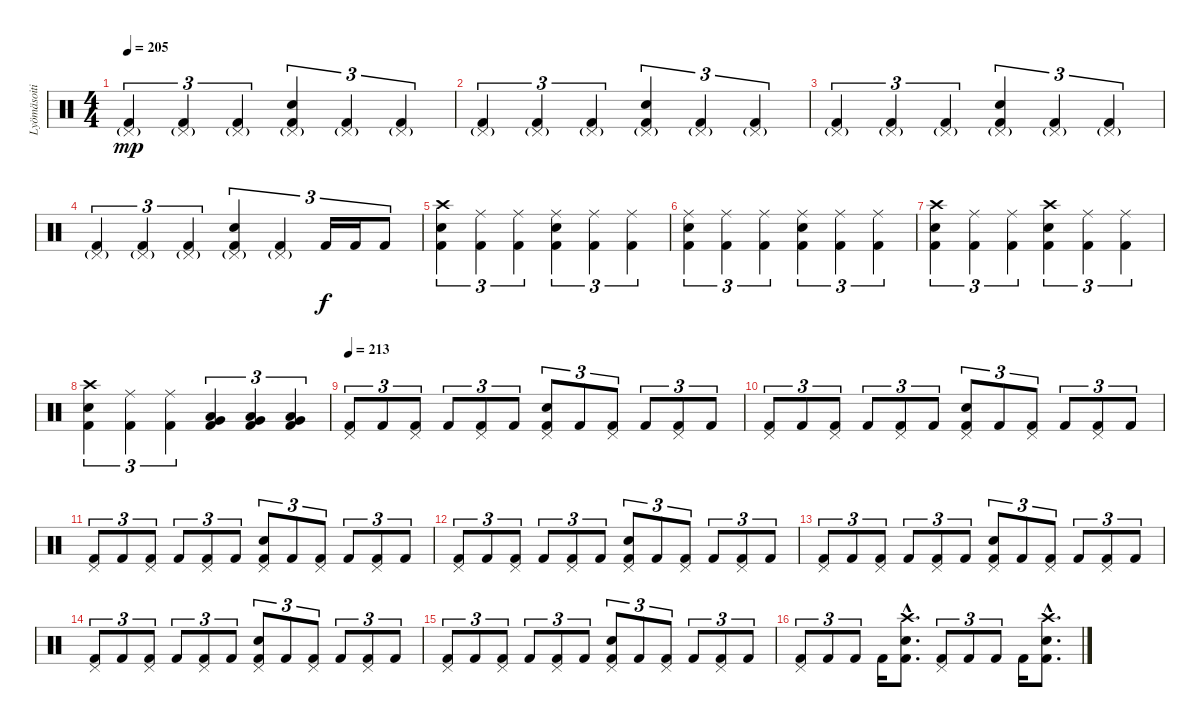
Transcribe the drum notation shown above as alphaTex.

\track ("Lyömäsoitin" "Lyömäsoiti") {instrument percussion}
\staff {score}
\articulation defaults
\ts (4 4)
\tempo 205
\clef neutral
\ks c
("Pedal Hi-Hat (hit)"{g} "Kick (hit) 2").4{tu (3 2) dy mp} ("Pedal Hi-Hat (hit)"{g} "Kick (hit) 2").4{tu (3 2)} ("Pedal Hi-Hat (hit)"{g} "Kick (hit) 2").4{tu (3 2)} ("Pedal Hi-Hat (hit)"{g} "Electric Snare (hit)" "Kick (hit) 2").4{tu (3 2)} ("Pedal Hi-Hat (hit)"{g} "Kick (hit) 2").4{tu (3 2)} ("Pedal Hi-Hat (hit)"{g} "Kick (hit) 2").4{tu (3 2)} |
("Pedal Hi-Hat (hit)"{g} "Kick (hit) 2").4{tu (3 2)} ("Pedal Hi-Hat (hit)"{g} "Kick (hit) 2").4{tu (3 2)} ("Pedal Hi-Hat (hit)"{g} "Kick (hit) 2").4{tu (3 2)} ("Pedal Hi-Hat (hit)"{g} "Electric Snare (hit)" "Kick (hit) 2").4{tu (3 2)} ("Pedal Hi-Hat (hit)"{g} "Kick (hit) 2").4{tu (3 2)} ("Pedal Hi-Hat (hit)"{g} "Kick (hit) 2").4{tu (3 2)} |
("Pedal Hi-Hat (hit)"{g} "Kick (hit) 2").4{tu (3 2)} ("Pedal Hi-Hat (hit)"{g} "Kick (hit) 2").4{tu (3 2)} ("Pedal Hi-Hat (hit)"{g} "Kick (hit) 2").4{tu (3 2)} ("Pedal Hi-Hat (hit)"{g} "Electric Snare (hit)" "Kick (hit) 2").4{tu (3 2)} ("Pedal Hi-Hat (hit)"{g} "Kick (hit) 2").4{tu (3 2)} ("Pedal Hi-Hat (hit)"{g} "Kick (hit) 2").4{tu (3 2)} |
("Pedal Hi-Hat (hit)"{g} "Kick (hit) 2").4{tu (3 2)} ("Pedal Hi-Hat (hit)"{g} "Kick (hit) 2").4{tu (3 2)} ("Pedal Hi-Hat (hit)"{g} "Kick (hit) 2").4{tu (3 2)} ("Pedal Hi-Hat (hit)"{g} "Electric Snare (hit)" "Kick (hit) 2").4{tu (3 2)} ("Pedal Hi-Hat (hit)"{g} "Kick (hit) 2").4{tu (3 2)} "Kick (hit) 2".16{tu (3 2) dy f} "Kick (hit) 2".16{tu (3 2)} "Kick (hit) 2".8{tu (3 2)} |
("Crash high (hit)" "Electric Snare (hit)" "Kick (hit) 2").4{tu (3 2)} ("Ride (middle)" "Kick (hit) 2").4{tu (3 2)} ("Ride (middle)" "Kick (hit) 2").4{tu (3 2)} ("Ride (middle)" "Electric Snare (hit)" "Kick (hit) 2").4{tu (3 2)} ("Ride (middle)" "Kick (hit) 2").4{tu (3 2)} ("Ride (middle)" "Kick (hit) 2").4{tu (3 2)} |
("Ride (middle)" "Electric Snare (hit)" "Kick (hit) 2").4{tu (3 2)} ("Ride (middle)" "Kick (hit) 2").4{tu (3 2)} ("Ride (middle)" "Kick (hit) 2").4{tu (3 2)} ("Ride (middle)" "Electric Snare (hit)" "Kick (hit) 2").4{tu (3 2)} ("Ride (middle)" "Kick (hit) 2").4{tu (3 2)} ("Ride (middle)" "Kick (hit) 2").4{tu (3 2)} |
("Crash high (hit)" "Electric Snare (hit)" "Kick (hit) 2").4{tu (3 2)} ("Ride (middle)" "Kick (hit) 2").4{tu (3 2)} ("Ride (middle)" "Kick (hit) 2").4{tu (3 2)} ("Crash high (hit)" "Electric Snare (hit)" "Kick (hit) 2").4{tu (3 2)} ("Ride (middle)" "Kick (hit) 2").4{tu (3 2)} ("Ride (middle)" "Kick (hit) 2").4{tu (3 2)} |
("Crash high (hit)" "Electric Snare (hit)" "Kick (hit) 2").4{tu (3 2)} ("Ride (middle)" "Kick (hit) 2").4{tu (3 2)} ("Ride (middle)" "Kick (hit) 2").4{tu (3 2)} ("Low Tom (hit)" "Very Low Tom (hit)" "Kick (hit) 2").4{tu (3 2)} ("Very Low Tom (hit)" "Low Floor Tom (hit)" "Kick (hit) 2").4{tu (3 2)} ("Very Low Tom (hit)" "Low Floor Tom (hit)" "Kick (hit) 2").4{tu (3 2)} |
\tempo 213
("Pedal Hi-Hat (hit)" "Kick (hit) 2").8{tu (3 2)} "Kick (hit) 2".8{tu (3 2)} ("Pedal Hi-Hat (hit)" "Kick (hit) 2").8{tu (3 2)} "Kick (hit) 2".8{tu (3 2)} ("Pedal Hi-Hat (hit)" "Kick (hit) 2").8{tu (3 2)} "Kick (hit) 2".8{tu (3 2)} ("Pedal Hi-Hat (hit)" "Electric Snare (hit)" "Kick (hit) 2").8{tu (3 2)} "Kick (hit) 2".8{tu (3 2)} ("Pedal Hi-Hat (hit)" "Kick (hit) 2").8{tu (3 2)} "Kick (hit) 2".8{tu (3 2)} ("Pedal Hi-Hat (hit)" "Kick (hit) 2").8{tu (3 2)} "Kick (hit) 2".8{tu (3 2)} |
("Pedal Hi-Hat (hit)" "Kick (hit) 2").8{tu (3 2)} "Kick (hit) 2".8{tu (3 2)} ("Pedal Hi-Hat (hit)" "Kick (hit) 2").8{tu (3 2)} "Kick (hit) 2".8{tu (3 2)} ("Pedal Hi-Hat (hit)" "Kick (hit) 2").8{tu (3 2)} "Kick (hit) 2".8{tu (3 2)} ("Pedal Hi-Hat (hit)" "Electric Snare (hit)" "Kick (hit) 2").8{tu (3 2)} "Kick (hit) 2".8{tu (3 2)} ("Pedal Hi-Hat (hit)" "Kick (hit) 2").8{tu (3 2)} "Kick (hit) 2".8{tu (3 2)} ("Pedal Hi-Hat (hit)" "Kick (hit) 2").8{tu (3 2)} "Kick (hit) 2".8{tu (3 2)} |
("Pedal Hi-Hat (hit)" "Kick (hit) 2").8{tu (3 2)} "Kick (hit) 2".8{tu (3 2)} ("Pedal Hi-Hat (hit)" "Kick (hit) 2").8{tu (3 2)} "Kick (hit) 2".8{tu (3 2)} ("Pedal Hi-Hat (hit)" "Kick (hit) 2").8{tu (3 2)} "Kick (hit) 2".8{tu (3 2)} ("Pedal Hi-Hat (hit)" "Electric Snare (hit)" "Kick (hit) 2").8{tu (3 2)} "Kick (hit) 2".8{tu (3 2)} ("Pedal Hi-Hat (hit)" "Kick (hit) 2").8{tu (3 2)} "Kick (hit) 2".8{tu (3 2)} ("Pedal Hi-Hat (hit)" "Kick (hit) 2").8{tu (3 2)} "Kick (hit) 2".8{tu (3 2)} |
("Pedal Hi-Hat (hit)" "Kick (hit) 2").8{tu (3 2)} "Kick (hit) 2".8{tu (3 2)} ("Pedal Hi-Hat (hit)" "Kick (hit) 2").8{tu (3 2)} "Kick (hit) 2".8{tu (3 2)} ("Pedal Hi-Hat (hit)" "Kick (hit) 2").8{tu (3 2)} "Kick (hit) 2".8{tu (3 2)} ("Pedal Hi-Hat (hit)" "Electric Snare (hit)" "Kick (hit) 2").8{tu (3 2)} "Kick (hit) 2".8{tu (3 2)} ("Pedal Hi-Hat (hit)" "Kick (hit) 2").8{tu (3 2)} "Kick (hit) 2".8{tu (3 2)} ("Pedal Hi-Hat (hit)" "Kick (hit) 2").8{tu (3 2)} "Kick (hit) 2".8{tu (3 2)} |
("Pedal Hi-Hat (hit)" "Kick (hit) 2").8{tu (3 2)} "Kick (hit) 2".8{tu (3 2)} ("Pedal Hi-Hat (hit)" "Kick (hit) 2").8{tu (3 2)} "Kick (hit) 2".8{tu (3 2)} ("Pedal Hi-Hat (hit)" "Kick (hit) 2").8{tu (3 2)} "Kick (hit) 2".8{tu (3 2)} ("Pedal Hi-Hat (hit)" "Electric Snare (hit)" "Kick (hit) 2").8{tu (3 2)} "Kick (hit) 2".8{tu (3 2)} ("Pedal Hi-Hat (hit)" "Kick (hit) 2").8{tu (3 2)} "Kick (hit) 2".8{tu (3 2)} ("Pedal Hi-Hat (hit)" "Kick (hit) 2").8{tu (3 2)} "Kick (hit) 2".8{tu (3 2)} |
("Pedal Hi-Hat (hit)" "Kick (hit) 2").8{tu (3 2)} "Kick (hit) 2".8{tu (3 2)} ("Pedal Hi-Hat (hit)" "Kick (hit) 2").8{tu (3 2)} "Kick (hit) 2".8{tu (3 2)} ("Pedal Hi-Hat (hit)" "Kick (hit) 2").8{tu (3 2)} "Kick (hit) 2".8{tu (3 2)} ("Pedal Hi-Hat (hit)" "Electric Snare (hit)" "Kick (hit) 2").8{tu (3 2)} "Kick (hit) 2".8{tu (3 2)} ("Pedal Hi-Hat (hit)" "Kick (hit) 2").8{tu (3 2)} "Kick (hit) 2".8{tu (3 2)} ("Pedal Hi-Hat (hit)" "Kick (hit) 2").8{tu (3 2)} "Kick (hit) 2".8{tu (3 2)} |
("Pedal Hi-Hat (hit)" "Kick (hit) 2").8{tu (3 2)} "Kick (hit) 2".8{tu (3 2)} ("Pedal Hi-Hat (hit)" "Kick (hit) 2").8{tu (3 2)} "Kick (hit) 2".8{tu (3 2)} ("Pedal Hi-Hat (hit)" "Kick (hit) 2").8{tu (3 2)} "Kick (hit) 2".8{tu (3 2)} ("Pedal Hi-Hat (hit)" "Electric Snare (hit)" "Kick (hit) 2").8{tu (3 2)} "Kick (hit) 2".8{tu (3 2)} ("Pedal Hi-Hat (hit)" "Kick (hit) 2").8{tu (3 2)} "Kick (hit) 2".8{tu (3 2)} ("Pedal Hi-Hat (hit)" "Kick (hit) 2").8{tu (3 2)} "Kick (hit) 2".8{tu (3 2)} |
("Pedal Hi-Hat (hit)" "Kick (hit) 2").8{tu (3 2)} "Kick (hit) 2".8{tu (3 2)} "Kick (hit) 2".8{tu (3 2)} "Kick (hit) 2".16 ("Crash high (hit)"{hac} "Electric Snare (hit)"{hac} "Kick (hit) 2"{hac}).8{d} ("Pedal Hi-Hat (hit)" "Kick (hit) 2").8{tu (3 2)} "Kick (hit) 2".8{tu (3 2)} "Kick (hit) 2".8{tu (3 2)} "Kick (hit) 2".16 ("Crash high (hit)"{hac} "Electric Snare (hit)"{hac} "Kick (hit) 2"{hac}).8{d}
